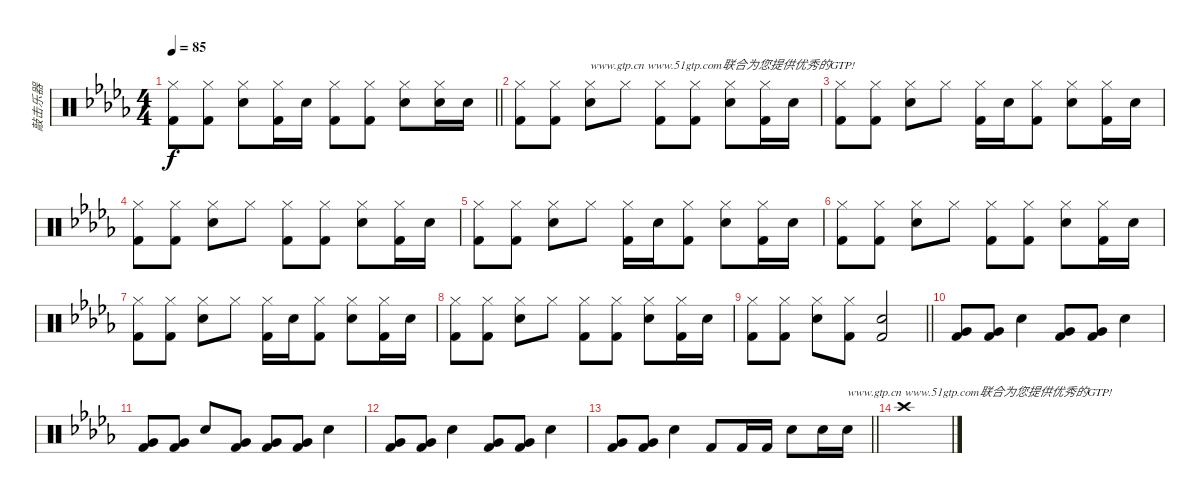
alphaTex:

\track ("敲击乐器" "敲击乐器") {instrument percussion}
\staff {score}
\articulation defaults
\ts (4 4)
\tempo 85
\clef neutral
\barLineRight lightlight
\ks db
("Hi-Hat (closed)" "Kick (hit) 2").8{dy f} ("Hi-Hat (closed)" "Kick (hit) 2").8 ("Hi-Hat (closed)" "Electric Snare (hit)").8 ("Hi-Hat (closed)" "Kick (hit) 2").16 "Electric Snare (hit)".16 ("Hi-Hat (closed)" "Kick (hit) 2").8 ("Hi-Hat (closed)" "Kick (hit) 2").8 ("Hi-Hat (closed)" "Electric Snare (hit)").8 ("Hi-Hat (closed)" "Electric Snare (hit)").16 "Electric Snare (hit)".16 |
("Hi-Hat (closed)" "Kick (hit) 2").8 ("Hi-Hat (closed)" "Kick (hit) 2").8 ("Hi-Hat (closed)" "Electric Snare (hit)").8{txt "www.gtp.cn www.51gtp.com联合为您提供优秀的GTP!"} "Hi-Hat (closed)".8 ("Hi-Hat (closed)" "Kick (hit) 2").8 ("Hi-Hat (closed)" "Kick (hit) 2").8 ("Hi-Hat (closed)" "Electric Snare (hit)").8 ("Hi-Hat (closed)" "Kick (hit) 2").16 "Electric Snare (hit)".16 |
("Hi-Hat (closed)" "Kick (hit) 2").8 ("Hi-Hat (closed)" "Kick (hit) 2").8 ("Hi-Hat (closed)" "Electric Snare (hit)").8 "Hi-Hat (closed)".8 ("Hi-Hat (closed)" "Kick (hit) 2").16 "Electric Snare (hit)".16 ("Hi-Hat (closed)" "Kick (hit) 2").8 ("Hi-Hat (closed)" "Electric Snare (hit)").8 ("Hi-Hat (closed)" "Kick (hit) 2").16 "Electric Snare (hit)".16 |
("Hi-Hat (closed)" "Kick (hit) 2").8 ("Hi-Hat (closed)" "Kick (hit) 2").8 ("Hi-Hat (closed)" "Electric Snare (hit)").8 "Hi-Hat (closed)".8 ("Hi-Hat (closed)" "Kick (hit) 2").8 ("Hi-Hat (closed)" "Kick (hit) 2").8 ("Hi-Hat (closed)" "Electric Snare (hit)").8 ("Hi-Hat (closed)" "Kick (hit) 2").16 "Electric Snare (hit)".16 |
("Hi-Hat (closed)" "Kick (hit) 2").8 ("Hi-Hat (closed)" "Kick (hit) 2").8 ("Hi-Hat (closed)" "Electric Snare (hit)").8 "Hi-Hat (closed)".8 ("Hi-Hat (closed)" "Kick (hit) 2").16 "Electric Snare (hit)".16 ("Hi-Hat (closed)" "Kick (hit) 2").8 ("Hi-Hat (closed)" "Electric Snare (hit)").8 ("Hi-Hat (closed)" "Kick (hit) 2").16 "Electric Snare (hit)".16 |
("Hi-Hat (closed)" "Kick (hit) 2").8 ("Hi-Hat (closed)" "Kick (hit) 2").8 ("Hi-Hat (closed)" "Electric Snare (hit)").8 "Hi-Hat (closed)".8 ("Hi-Hat (closed)" "Kick (hit) 2").8 ("Hi-Hat (closed)" "Kick (hit) 2").8 ("Hi-Hat (closed)" "Electric Snare (hit)").8 ("Hi-Hat (closed)" "Kick (hit) 2").16 "Electric Snare (hit)".16 |
("Hi-Hat (closed)" "Kick (hit) 2").8 ("Hi-Hat (closed)" "Kick (hit) 2").8 ("Hi-Hat (closed)" "Electric Snare (hit)").8 "Hi-Hat (closed)".8 ("Hi-Hat (closed)" "Kick (hit) 2").16 "Electric Snare (hit)".16 ("Hi-Hat (closed)" "Kick (hit) 2").8 ("Hi-Hat (closed)" "Electric Snare (hit)").8 ("Hi-Hat (closed)" "Kick (hit) 2").16 "Electric Snare (hit)".16 |
("Hi-Hat (closed)" "Kick (hit) 2").8 ("Hi-Hat (closed)" "Kick (hit) 2").8 ("Hi-Hat (closed)" "Electric Snare (hit)").8 "Hi-Hat (closed)".8 ("Hi-Hat (closed)" "Kick (hit) 2").8 ("Hi-Hat (closed)" "Kick (hit) 2").8 ("Hi-Hat (closed)" "Electric Snare (hit)").8 ("Hi-Hat (closed)" "Kick (hit) 2").16 "Electric Snare (hit)".16 |
\barLineRight lightlight
("Hi-Hat (closed)" "Kick (hit) 2").8 ("Hi-Hat (closed)" "Kick (hit) 2").8 ("Hi-Hat (closed)" "Electric Snare (hit)").8 ("Hi-Hat (closed)" "Kick (hit) 2").8 ("Electric Snare (hit)" "Kick (hit) 2").2 |
("Very Low Tom (hit)" "Kick (hit) 2").8 ("Very Low Tom (hit)" "Kick (hit) 2").8 "Hand Clap (hit)".4 ("Very Low Tom (hit)" "Kick (hit) 2").8 ("Very Low Tom (hit)" "Kick (hit) 2").8 "Hand Clap (hit)".4 |
("Very Low Tom (hit)" "Kick (hit) 2").8 ("Very Low Tom (hit)" "Kick (hit) 2").8 "Hand Clap (hit)".8 ("Very Low Tom (hit)" "Kick (hit) 2").8 ("Very Low Tom (hit)" "Kick (hit) 2").8 ("Very Low Tom (hit)" "Kick (hit) 2").8 "Hand Clap (hit)".4 |
("Very Low Tom (hit)" "Kick (hit) 2").8 ("Very Low Tom (hit)" "Kick (hit) 2").8 "Hand Clap (hit)".4 ("Very Low Tom (hit)" "Kick (hit) 2").8 ("Very Low Tom (hit)" "Kick (hit) 2").8 "Hand Clap (hit)".4 |
\barLineRight lightlight
("Very Low Tom (hit)" "Kick (hit) 2").8 ("Very Low Tom (hit)" "Kick (hit) 2").8 "Hand Clap (hit)".4 "Kick (hit) 2".8 "Kick (hit) 2".16 "Kick (hit) 2".16 "Electric Snare (hit)".8 "Electric Snare (hit)".16 "Electric Snare (hit)".16{txt "www.gtp.cn www.51gtp.com联合为您提供优秀的GTP!"} |
"Crash high (hit)".1
